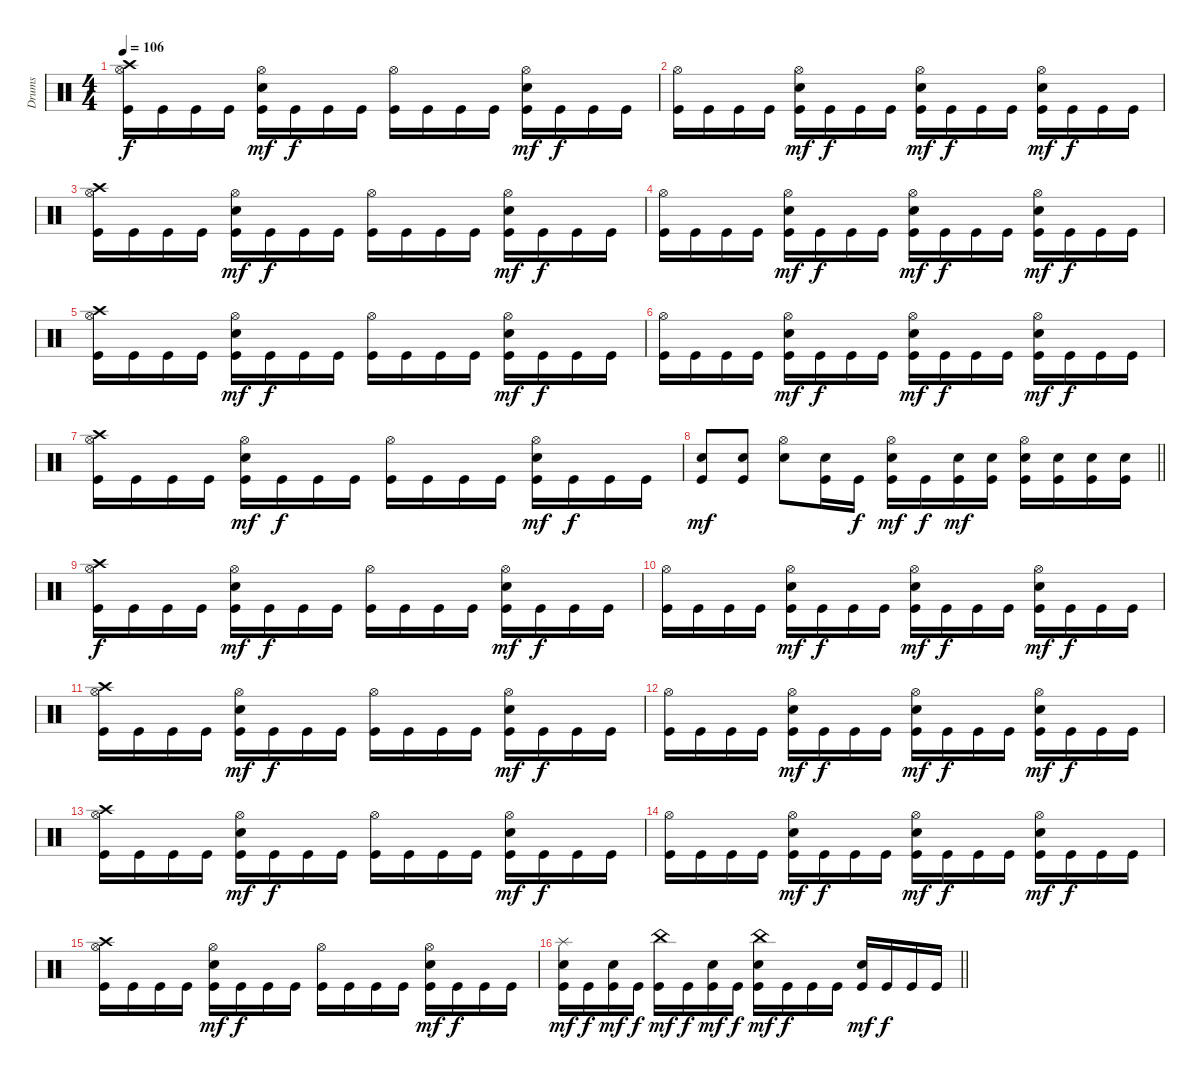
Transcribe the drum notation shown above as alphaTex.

\track ("Drums" "Drums") {instrument percussion}
\staff {score}
\articulation defaults
\ts (4 4)
\section ("" "")
\tempo 106
\clef neutral
\ks c
("Crash high (hit)" "Hi-Hat (open)" "Kick (hit)").16{dy f} "Kick (hit)".16 "Kick (hit)".16 "Kick (hit)".16 ("Hi-Hat (open)" "Electric Snare (hit)" "Kick (hit)").16{dy mf} "Kick (hit)".16{dy f} "Kick (hit)".16 "Kick (hit)".16 ("Hi-Hat (open)" "Kick (hit)").16 "Kick (hit)".16 "Kick (hit)".16 "Kick (hit)".16 ("Hi-Hat (open)" "Electric Snare (hit)" "Kick (hit)").16{dy mf} "Kick (hit)".16{dy f} "Kick (hit)".16 "Kick (hit)".16 |
("Hi-Hat (open)" "Kick (hit)").16 "Kick (hit)".16 "Kick (hit)".16 "Kick (hit)".16 ("Hi-Hat (open)" "Electric Snare (hit)" "Kick (hit)").16{dy mf} "Kick (hit)".16{dy f} "Kick (hit)".16 "Kick (hit)".16 ("Hi-Hat (open)" "Electric Snare (hit)" "Kick (hit)").16{dy mf} "Kick (hit)".16{dy f} "Kick (hit)".16 "Kick (hit)".16 ("Hi-Hat (open)" "Electric Snare (hit)" "Kick (hit)").16{dy mf} "Kick (hit)".16{dy f} "Kick (hit)".16 "Kick (hit)".16 |
("Crash high (hit)" "Hi-Hat (open)" "Kick (hit)").16 "Kick (hit)".16 "Kick (hit)".16 "Kick (hit)".16 ("Hi-Hat (open)" "Electric Snare (hit)" "Kick (hit)").16{dy mf} "Kick (hit)".16{dy f} "Kick (hit)".16 "Kick (hit)".16 ("Hi-Hat (open)" "Kick (hit)").16 "Kick (hit)".16 "Kick (hit)".16 "Kick (hit)".16 ("Hi-Hat (open)" "Electric Snare (hit)" "Kick (hit)").16{dy mf} "Kick (hit)".16{dy f} "Kick (hit)".16 "Kick (hit)".16 |
("Hi-Hat (open)" "Kick (hit)").16 "Kick (hit)".16 "Kick (hit)".16 "Kick (hit)".16 ("Hi-Hat (open)" "Electric Snare (hit)" "Kick (hit)").16{dy mf} "Kick (hit)".16{dy f} "Kick (hit)".16 "Kick (hit)".16 ("Hi-Hat (open)" "Electric Snare (hit)" "Kick (hit)").16{dy mf} "Kick (hit)".16{dy f} "Kick (hit)".16 "Kick (hit)".16 ("Hi-Hat (open)" "Electric Snare (hit)" "Kick (hit)").16{dy mf} "Kick (hit)".16{dy f} "Kick (hit)".16 "Kick (hit)".16 |
("Crash high (hit)" "Hi-Hat (open)" "Kick (hit)").16 "Kick (hit)".16 "Kick (hit)".16 "Kick (hit)".16 ("Hi-Hat (open)" "Electric Snare (hit)" "Kick (hit)").16{dy mf} "Kick (hit)".16{dy f} "Kick (hit)".16 "Kick (hit)".16 ("Hi-Hat (open)" "Kick (hit)").16 "Kick (hit)".16 "Kick (hit)".16 "Kick (hit)".16 ("Hi-Hat (open)" "Electric Snare (hit)" "Kick (hit)").16{dy mf} "Kick (hit)".16{dy f} "Kick (hit)".16 "Kick (hit)".16 |
("Hi-Hat (open)" "Kick (hit)").16 "Kick (hit)".16 "Kick (hit)".16 "Kick (hit)".16 ("Hi-Hat (open)" "Electric Snare (hit)" "Kick (hit)").16{dy mf} "Kick (hit)".16{dy f} "Kick (hit)".16 "Kick (hit)".16 ("Hi-Hat (open)" "Electric Snare (hit)" "Kick (hit)").16{dy mf} "Kick (hit)".16{dy f} "Kick (hit)".16 "Kick (hit)".16 ("Hi-Hat (open)" "Electric Snare (hit)" "Kick (hit)").16{dy mf} "Kick (hit)".16{dy f} "Kick (hit)".16 "Kick (hit)".16 |
("Crash high (hit)" "Hi-Hat (open)" "Kick (hit)").16 "Kick (hit)".16 "Kick (hit)".16 "Kick (hit)".16 ("Hi-Hat (open)" "Electric Snare (hit)" "Kick (hit)").16{dy mf} "Kick (hit)".16{dy f} "Kick (hit)".16 "Kick (hit)".16 ("Hi-Hat (open)" "Kick (hit)").16 "Kick (hit)".16 "Kick (hit)".16 "Kick (hit)".16 ("Hi-Hat (open)" "Electric Snare (hit)" "Kick (hit)").16{dy mf} "Kick (hit)".16{dy f} "Kick (hit)".16 "Kick (hit)".16 |
\barLineRight lightlight
("Electric Snare (hit)" "Kick (hit)").8{dy mf} ("Electric Snare (hit)" "Kick (hit)").8 ("Hi-Hat (open)" "Electric Snare (hit)").8 ("Electric Snare (hit)" "Kick (hit)").16 "Kick (hit)".16{dy f} ("Hi-Hat (open)" "Electric Snare (hit)" "Kick (hit)").16{dy mf} "Kick (hit)".16{dy f} ("Electric Snare (hit)" "Kick (hit)").16{dy mf} ("Electric Snare (hit)" "Kick (hit)").16 ("Hi-Hat (open)" "Electric Snare (hit)" "Kick (hit)").16 ("Electric Snare (hit)" "Kick (hit)").16 ("Electric Snare (hit)" "Kick (hit)").16 ("Electric Snare (hit)" "Kick (hit)").16 |
\section ("" "")
("Crash high (hit)" "Hi-Hat (open)" "Kick (hit)").16{dy f} "Kick (hit)".16 "Kick (hit)".16 "Kick (hit)".16 ("Hi-Hat (open)" "Electric Snare (hit)" "Kick (hit)").16{dy mf} "Kick (hit)".16{dy f} "Kick (hit)".16 "Kick (hit)".16 ("Hi-Hat (open)" "Kick (hit)").16 "Kick (hit)".16 "Kick (hit)".16 "Kick (hit)".16 ("Hi-Hat (open)" "Electric Snare (hit)" "Kick (hit)").16{dy mf} "Kick (hit)".16{dy f} "Kick (hit)".16 "Kick (hit)".16 |
("Hi-Hat (open)" "Kick (hit)").16 "Kick (hit)".16 "Kick (hit)".16 "Kick (hit)".16 ("Hi-Hat (open)" "Electric Snare (hit)" "Kick (hit)").16{dy mf} "Kick (hit)".16{dy f} "Kick (hit)".16 "Kick (hit)".16 ("Hi-Hat (open)" "Electric Snare (hit)" "Kick (hit)").16{dy mf} "Kick (hit)".16{dy f} "Kick (hit)".16 "Kick (hit)".16 ("Hi-Hat (open)" "Electric Snare (hit)" "Kick (hit)").16{dy mf} "Kick (hit)".16{dy f} "Kick (hit)".16 "Kick (hit)".16 |
("Crash high (hit)" "Hi-Hat (open)" "Kick (hit)").16 "Kick (hit)".16 "Kick (hit)".16 "Kick (hit)".16 ("Hi-Hat (open)" "Electric Snare (hit)" "Kick (hit)").16{dy mf} "Kick (hit)".16{dy f} "Kick (hit)".16 "Kick (hit)".16 ("Hi-Hat (open)" "Kick (hit)").16 "Kick (hit)".16 "Kick (hit)".16 "Kick (hit)".16 ("Hi-Hat (open)" "Electric Snare (hit)" "Kick (hit)").16{dy mf} "Kick (hit)".16{dy f} "Kick (hit)".16 "Kick (hit)".16 |
("Hi-Hat (open)" "Kick (hit)").16 "Kick (hit)".16 "Kick (hit)".16 "Kick (hit)".16 ("Hi-Hat (open)" "Electric Snare (hit)" "Kick (hit)").16{dy mf} "Kick (hit)".16{dy f} "Kick (hit)".16 "Kick (hit)".16 ("Hi-Hat (open)" "Electric Snare (hit)" "Kick (hit)").16{dy mf} "Kick (hit)".16{dy f} "Kick (hit)".16 "Kick (hit)".16 ("Hi-Hat (open)" "Electric Snare (hit)" "Kick (hit)").16{dy mf} "Kick (hit)".16{dy f} "Kick (hit)".16 "Kick (hit)".16 |
("Crash high (hit)" "Hi-Hat (open)" "Kick (hit)").16 "Kick (hit)".16 "Kick (hit)".16 "Kick (hit)".16 ("Hi-Hat (open)" "Electric Snare (hit)" "Kick (hit)").16{dy mf} "Kick (hit)".16{dy f} "Kick (hit)".16 "Kick (hit)".16 ("Hi-Hat (open)" "Kick (hit)").16 "Kick (hit)".16 "Kick (hit)".16 "Kick (hit)".16 ("Hi-Hat (open)" "Electric Snare (hit)" "Kick (hit)").16{dy mf} "Kick (hit)".16{dy f} "Kick (hit)".16 "Kick (hit)".16 |
("Hi-Hat (open)" "Kick (hit)").16 "Kick (hit)".16 "Kick (hit)".16 "Kick (hit)".16 ("Hi-Hat (open)" "Electric Snare (hit)" "Kick (hit)").16{dy mf} "Kick (hit)".16{dy f} "Kick (hit)".16 "Kick (hit)".16 ("Hi-Hat (open)" "Electric Snare (hit)" "Kick (hit)").16{dy mf} "Kick (hit)".16{dy f} "Kick (hit)".16 "Kick (hit)".16 ("Hi-Hat (open)" "Electric Snare (hit)" "Kick (hit)").16{dy mf} "Kick (hit)".16{dy f} "Kick (hit)".16 "Kick (hit)".16 |
("Crash high (hit)" "Hi-Hat (open)" "Kick (hit)").16 "Kick (hit)".16 "Kick (hit)".16 "Kick (hit)".16 ("Hi-Hat (open)" "Electric Snare (hit)" "Kick (hit)").16{dy mf} "Kick (hit)".16{dy f} "Kick (hit)".16 "Kick (hit)".16 ("Hi-Hat (open)" "Kick (hit)").16 "Kick (hit)".16 "Kick (hit)".16 "Kick (hit)".16 ("Hi-Hat (open)" "Electric Snare (hit)" "Kick (hit)").16{dy mf} "Kick (hit)".16{dy f} "Kick (hit)".16 "Kick (hit)".16 |
\barLineRight lightlight
("Splash (hit)" "Electric Snare (hit)" "Kick (hit)").16{dy mf} "Kick (hit)".16{dy f} ("Electric Snare (hit)" "Kick (hit)").16{dy mf} "Kick (hit)".16{dy f} ("China (hit)" "Kick (hit)").16{dy mf} "Kick (hit)".16{dy f} ("Electric Snare (hit)" "Kick (hit)").16{dy mf} "Kick (hit)".16{dy f} ("China (hit)" "Electric Snare (hit)" "Kick (hit)").16{dy mf} "Kick (hit)".16{dy f} "Kick (hit)".16 "Kick (hit)".16 ("Electric Snare (hit)" "Kick (hit)").16{dy mf} "Kick (hit)".16{dy f} "Kick (hit)".16 "Kick (hit)".16
